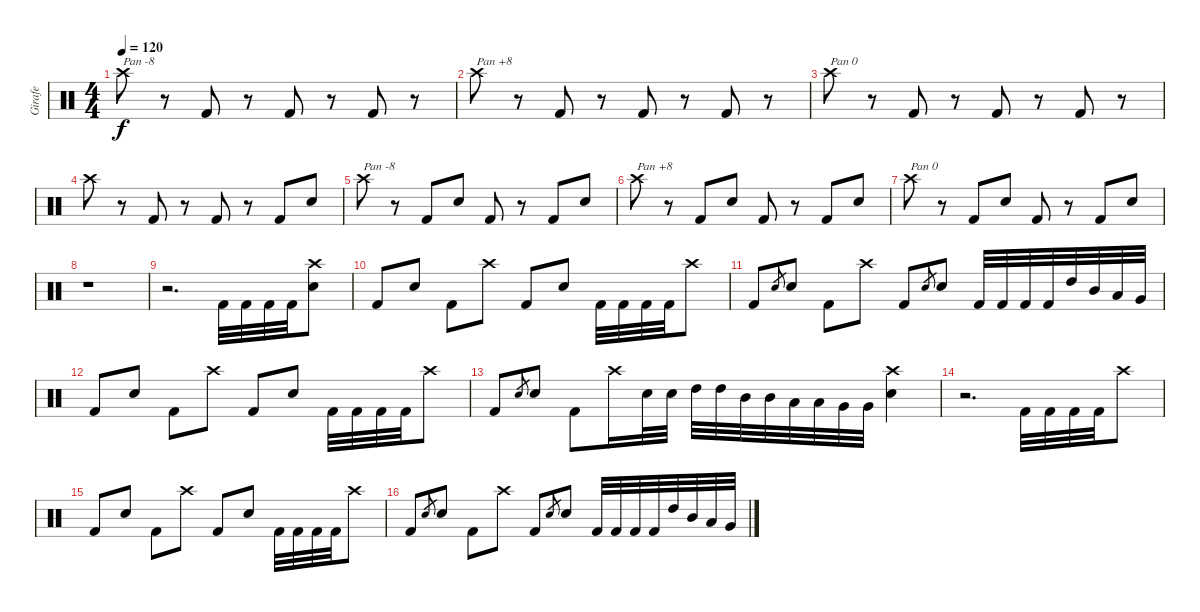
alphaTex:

\track ("Girafe" "Girafe") {instrument percussion}
\staff {score}
\articulation defaults
\ts (4 4)
\tempo 120
\clef neutral
\ks c "Crash high (hit)".8{txt "Pan -8" dy f balance 0}
r.8 "Kick (hit) 2".8 r.8 "Kick (hit) 2".8 r.8 "Kick (hit) 2".8 r.8 |
"Crash high (hit)".8{txt "Pan +8" balance 16} r.8 "Kick (hit) 2".8 r.8 "Kick (hit) 2".8 r.8 "Kick (hit) 2".8 r.8 |
"Crash high (hit)".8{txt "Pan 0" balance 8} r.8 "Kick (hit) 2".8 r.8 "Kick (hit) 2".8 r.8 "Kick (hit) 2".8 r.8 |
"Crash high (hit)".8 r.8 "Kick (hit) 2".8 r.8 "Kick (hit) 2".8 r.8 "Kick (hit) 2".8 "Electric Snare (hit)".8 |
"Crash high (hit)".8{txt "Pan -8" balance 0} r.8 "Kick (hit) 2".8 "Electric Snare (hit)".8 "Kick (hit) 2".8 r.8 "Kick (hit) 2".8 "Electric Snare (hit)".8 |
"Crash high (hit)".8{txt "Pan +8" balance 16} r.8 "Kick (hit) 2".8 "Electric Snare (hit)".8 "Kick (hit) 2".8 r.8 "Kick (hit) 2".8 "Electric Snare (hit)".8 |
"Crash high (hit)".8{txt "Pan 0" balance 8} r.8 "Kick (hit) 2".8 "Electric Snare (hit)".8 "Kick (hit) 2".8 r.8 "Kick (hit) 2".8 "Electric Snare (hit)".8 |
r.1 |
r.2{d} "Kick (hit) 2".32 "Kick (hit) 2".32 "Kick (hit) 2".32 "Kick (hit) 2".32 ("Electric Snare (hit)" "Crash high (hit)").8 |
"Kick (hit) 2".8 "Electric Snare (hit)".8 "Kick (hit) 2".8 "Crash high (hit)".8 "Kick (hit) 2".8 "Electric Snare (hit)".8 "Kick (hit) 2".32 "Kick (hit) 2".32 "Kick (hit) 2".32 "Kick (hit) 2".32 "Crash high (hit)".8 |
"Kick (hit) 2".8 "Electric Snare (hit)".8{gr} "Electric Snare (hit)".8 "Kick (hit) 2".8 "Crash high (hit)".8 "Kick (hit) 2".8 "Electric Snare (hit)".8{gr} "Electric Snare (hit)".8 "Kick (hit) 2".32 "Kick (hit) 2".32 "Kick (hit) 2".32 "Kick (hit) 2".32 "High Tom (hit)".32 "Mid Tom (hit)".32 "Low Tom (hit)".32 "Very Low Tom (hit)".32 |
"Kick (hit) 2".8 "Electric Snare (hit)".8 "Kick (hit) 2".8 "Crash high (hit)".8 "Kick (hit) 2".8 "Electric Snare (hit)".8 "Kick (hit) 2".32 "Kick (hit) 2".32 "Kick (hit) 2".32 "Kick (hit) 2".32 "Crash high (hit)".8 |
"Kick (hit) 2".8 "Electric Snare (hit)".8{gr} "Electric Snare (hit)".8 "Kick (hit) 2".8 "Crash high (hit)".16 "Electric Snare (hit)".32 "Electric Snare (hit)".32 "High Tom (hit)".32 "High Tom (hit)".32 "Mid Tom (hit)".32 "Mid Tom (hit)".32 "Low Tom (hit)".32 "Low Tom (hit)".32 "Very Low Tom (hit)".32 "Very Low Tom (hit)".32 ("Electric Snare (hit)" "Crash high (hit)").4 |
r.2{d} "Kick (hit) 2".32 "Kick (hit) 2".32 "Kick (hit) 2".32 "Kick (hit) 2".32 "Crash high (hit)".8 |
"Kick (hit) 2".8 "Electric Snare (hit)".8 "Kick (hit) 2".8 "Crash high (hit)".8 "Kick (hit) 2".8 "Electric Snare (hit)".8 "Kick (hit) 2".32 "Kick (hit) 2".32 "Kick (hit) 2".32 "Kick (hit) 2".32 "Crash high (hit)".8 |
"Kick (hit) 2".8 "Electric Snare (hit)".8{gr} "Electric Snare (hit)".8 "Kick (hit) 2".8 "Crash high (hit)".8 "Kick (hit) 2".8 "Electric Snare (hit)".8{gr} "Electric Snare (hit)".8 "Kick (hit) 2".32 "Kick (hit) 2".32 "Kick (hit) 2".32 "Kick (hit) 2".32 "High Tom (hit)".32 "Mid Tom (hit)".32 "Low Tom (hit)".32 "Very Low Tom (hit)".32
